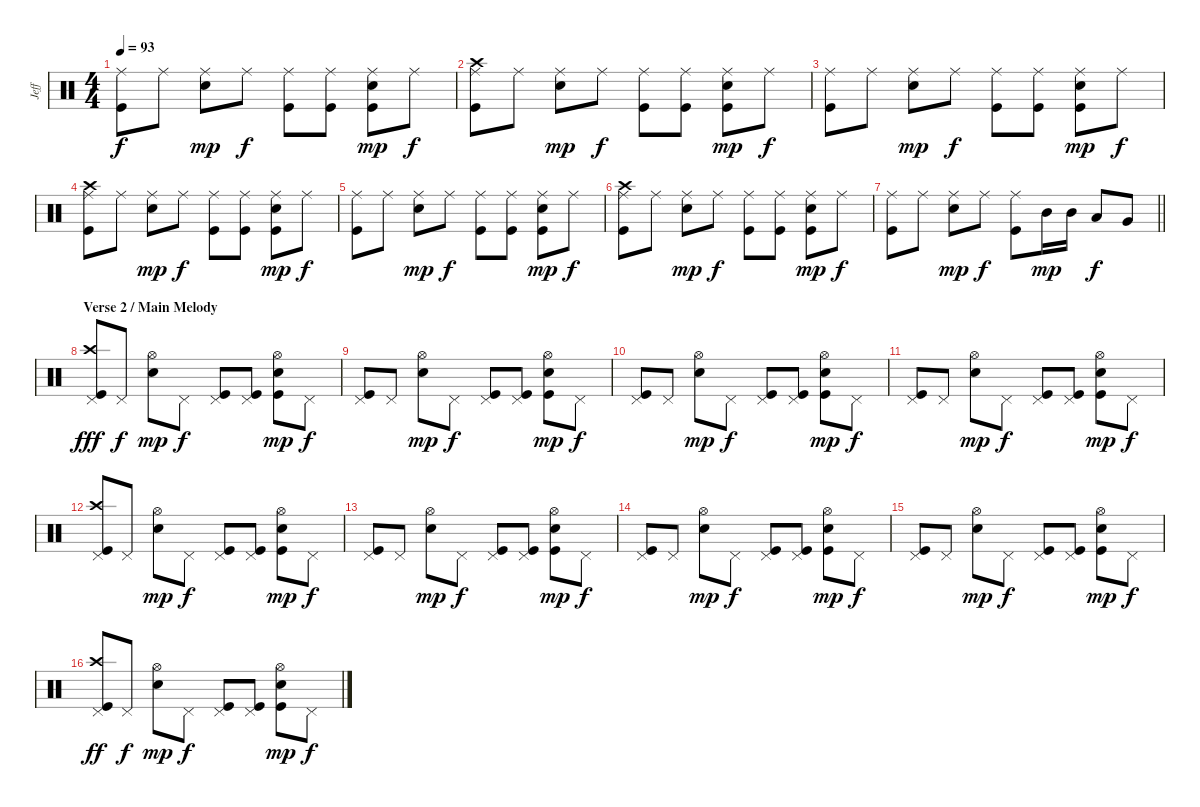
\track ("Jeff" "Jeff") {instrument percussion}
\staff {score}
\articulation defaults
\ts (4 4)
\tempo 93
\clef neutral
\ks c
("Ride (middle)" "Kick (hit)").8{dy f} "Ride (middle)".8 ("Ride (middle)" "Snare (hit) 2").8{dy mp} "Ride (middle)".8{dy f} ("Ride (middle)" "Kick (hit)").8 ("Ride (middle)" "Kick (hit)").8 ("Ride (middle)" "Snare (hit) 2" "Kick (hit)").8{dy mp} "Ride (middle)".8{dy f} |
("Ride (middle)" "Crash high (hit)" "Kick (hit)").8 "Ride (middle)".8 ("Ride (middle)" "Snare (hit) 2").8{dy mp} "Ride (middle)".8{dy f} ("Ride (middle)" "Kick (hit)").8 ("Ride (middle)" "Kick (hit)").8 ("Ride (middle)" "Snare (hit) 2" "Kick (hit)").8{dy mp} "Ride (middle)".8{dy f} |
("Ride (middle)" "Kick (hit)").8 "Ride (middle)".8 ("Ride (middle)" "Snare (hit) 2").8{dy mp} "Ride (middle)".8{dy f} ("Ride (middle)" "Kick (hit)").8 ("Ride (middle)" "Kick (hit)").8 ("Ride (middle)" "Snare (hit) 2" "Kick (hit)").8{dy mp} "Ride (middle)".8{dy f} |
("Ride (middle)" "Crash high (hit)" "Kick (hit)").8 "Ride (middle)".8 ("Ride (middle)" "Snare (hit) 2").8{dy mp} "Ride (middle)".8{dy f} ("Ride (middle)" "Kick (hit)").8 ("Ride (middle)" "Kick (hit)").8 ("Ride (middle)" "Snare (hit) 2" "Kick (hit)").8{dy mp} "Ride (middle)".8{dy f} |
("Ride (middle)" "Kick (hit)").8 "Ride (middle)".8 ("Ride (middle)" "Snare (hit) 2").8{dy mp} "Ride (middle)".8{dy f} ("Ride (middle)" "Kick (hit)").8 ("Ride (middle)" "Kick (hit)").8 ("Ride (middle)" "Snare (hit) 2" "Kick (hit)").8{dy mp} "Ride (middle)".8{dy f} |
("Ride (middle)" "Crash high (hit)" "Kick (hit)").8 "Ride (middle)".8 ("Ride (middle)" "Snare (hit) 2").8{dy mp} "Ride (middle)".8{dy f} ("Ride (middle)" "Kick (hit)").8 ("Ride (middle)" "Kick (hit)").8 ("Ride (middle)" "Snare (hit) 2" "Kick (hit)").8{dy mp} "Ride (middle)".8{dy f} |
\barLineRight lightlight
("Ride (middle)" "Kick (hit)").8 "Ride (middle)".8 ("Ride (middle)" "Snare (hit) 2").8{dy mp} "Ride (middle)".8{dy f} ("Ride (middle)" "Kick (hit)").8 "Mid Tom (hit)".16{dy mp} "Mid Tom (hit)".16 "Low Tom (hit)".8{dy f} "Very Low Tom (hit)".8 |
\section ("" "Verse 2 / Main Melody")
("Pedal Hi-Hat (hit)" "Crash high (hit)" "Kick (hit)").8{dy fff} "Pedal Hi-Hat (hit)".8{dy f} ("Hi-Hat (open)" "Snare (hit) 2").8{dy mp} "Pedal Hi-Hat (hit)".8{dy f} ("Pedal Hi-Hat (hit)" "Kick (hit)").8 ("Pedal Hi-Hat (hit)" "Kick (hit)").8 ("Hi-Hat (open)" "Snare (hit) 2" "Kick (hit)").8{dy mp} "Pedal Hi-Hat (hit)".8{dy f} |
("Pedal Hi-Hat (hit)" "Kick (hit)").8 "Pedal Hi-Hat (hit)".8 ("Hi-Hat (open)" "Snare (hit) 2").8{dy mp} "Pedal Hi-Hat (hit)".8{dy f} ("Pedal Hi-Hat (hit)" "Kick (hit)").8 ("Pedal Hi-Hat (hit)" "Kick (hit)").8 ("Hi-Hat (open)" "Snare (hit) 2" "Kick (hit)").8{dy mp} "Pedal Hi-Hat (hit)".8{dy f} |
("Pedal Hi-Hat (hit)" "Kick (hit)").8 "Pedal Hi-Hat (hit)".8 ("Hi-Hat (open)" "Snare (hit) 2").8{dy mp} "Pedal Hi-Hat (hit)".8{dy f} ("Pedal Hi-Hat (hit)" "Kick (hit)").8 ("Pedal Hi-Hat (hit)" "Kick (hit)").8 ("Hi-Hat (open)" "Snare (hit) 2" "Kick (hit)").8{dy mp} "Pedal Hi-Hat (hit)".8{dy f} |
("Pedal Hi-Hat (hit)" "Kick (hit)").8 "Pedal Hi-Hat (hit)".8 ("Hi-Hat (open)" "Snare (hit) 2").8{dy mp} "Pedal Hi-Hat (hit)".8{dy f} ("Pedal Hi-Hat (hit)" "Kick (hit)").8 ("Pedal Hi-Hat (hit)" "Kick (hit)").8 ("Hi-Hat (open)" "Snare (hit) 2" "Kick (hit)").8{dy mp} "Pedal Hi-Hat (hit)".8{dy f} |
("Pedal Hi-Hat (hit)" "Crash high (hit)" "Kick (hit)").8 "Pedal Hi-Hat (hit)".8 ("Hi-Hat (open)" "Snare (hit) 2").8{dy mp} "Pedal Hi-Hat (hit)".8{dy f} ("Pedal Hi-Hat (hit)" "Kick (hit)").8 ("Pedal Hi-Hat (hit)" "Kick (hit)").8 ("Hi-Hat (open)" "Snare (hit) 2" "Kick (hit)").8{dy mp} "Pedal Hi-Hat (hit)".8{dy f} |
("Pedal Hi-Hat (hit)" "Kick (hit)").8 "Pedal Hi-Hat (hit)".8 ("Hi-Hat (open)" "Snare (hit) 2").8{dy mp} "Pedal Hi-Hat (hit)".8{dy f} ("Pedal Hi-Hat (hit)" "Kick (hit)").8 ("Pedal Hi-Hat (hit)" "Kick (hit)").8 ("Hi-Hat (open)" "Snare (hit) 2" "Kick (hit)").8{dy mp} "Pedal Hi-Hat (hit)".8{dy f} |
("Pedal Hi-Hat (hit)" "Kick (hit)").8 "Pedal Hi-Hat (hit)".8 ("Hi-Hat (open)" "Snare (hit) 2").8{dy mp} "Pedal Hi-Hat (hit)".8{dy f} ("Pedal Hi-Hat (hit)" "Kick (hit)").8 ("Pedal Hi-Hat (hit)" "Kick (hit)").8 ("Hi-Hat (open)" "Snare (hit) 2" "Kick (hit)").8{dy mp} "Pedal Hi-Hat (hit)".8{dy f} |
("Pedal Hi-Hat (hit)" "Kick (hit)").8 "Pedal Hi-Hat (hit)".8 ("Hi-Hat (open)" "Snare (hit) 2").8{dy mp} "Pedal Hi-Hat (hit)".8{dy f} ("Pedal Hi-Hat (hit)" "Kick (hit)").8 ("Pedal Hi-Hat (hit)" "Kick (hit)").8 ("Hi-Hat (open)" "Snare (hit) 2" "Kick (hit)").8{dy mp} "Pedal Hi-Hat (hit)".8{dy f} |
("Pedal Hi-Hat (hit)" "Crash high (hit)" "Kick (hit)").8{dy ff} "Pedal Hi-Hat (hit)".8{dy f} ("Hi-Hat (open)" "Snare (hit) 2").8{dy mp} "Pedal Hi-Hat (hit)".8{dy f} ("Pedal Hi-Hat (hit)" "Kick (hit)").8 ("Pedal Hi-Hat (hit)" "Kick (hit)").8 ("Hi-Hat (open)" "Snare (hit) 2" "Kick (hit)").8{dy mp} "Pedal Hi-Hat (hit)".8{dy f}
